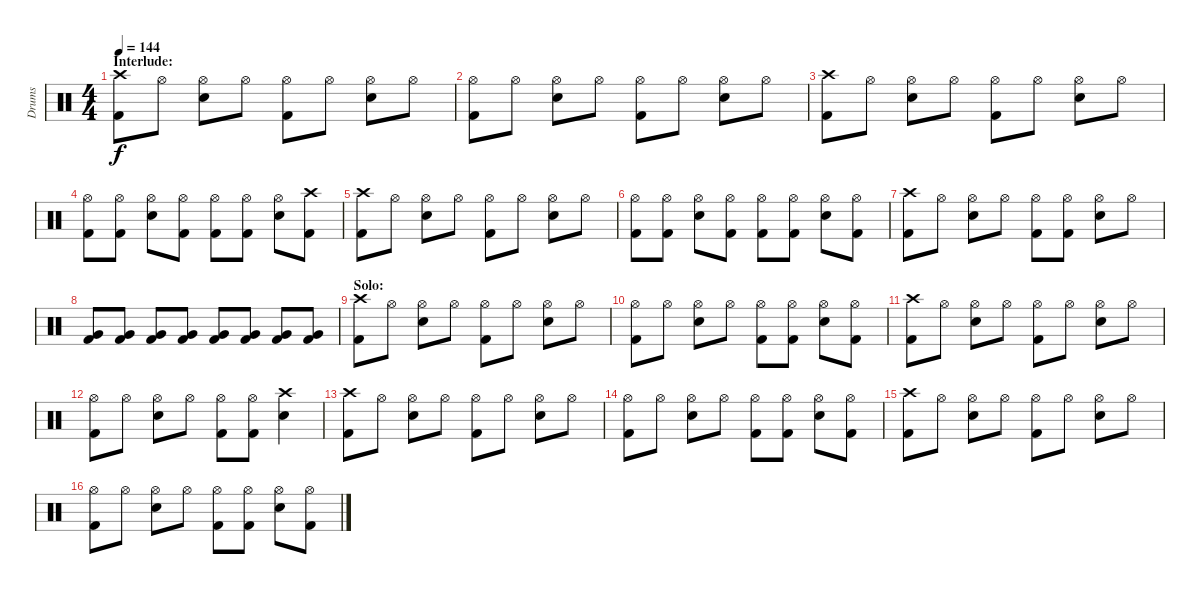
\track ("Drums" "Drums") {instrument percussion}
\staff {score}
\articulation defaults
\ts (4 4)
\section ("" "Interlude:")
\tempo 144
\clef neutral
\ks c
("Crash high (hit)" "Kick (hit) 2").8{dy f} "Hi-Hat (open)".8 ("Hi-Hat (open)" "Snare (hit) 2").8 "Hi-Hat (open)".8 ("Hi-Hat (open)" "Kick (hit) 2").8 "Hi-Hat (open)".8 ("Hi-Hat (open)" "Snare (hit) 2").8 "Hi-Hat (open)".8 |
("Hi-Hat (open)" "Kick (hit) 2").8 "Hi-Hat (open)".8 ("Hi-Hat (open)" "Snare (hit) 2").8 "Hi-Hat (open)".8 ("Hi-Hat (open)" "Kick (hit) 2").8 "Hi-Hat (open)".8 ("Hi-Hat (open)" "Snare (hit) 2").8 "Hi-Hat (open)".8 |
("Crash high (hit)" "Kick (hit) 2").8 "Hi-Hat (open)".8 ("Hi-Hat (open)" "Snare (hit) 2").8 "Hi-Hat (open)".8 ("Hi-Hat (open)" "Kick (hit) 2").8 "Hi-Hat (open)".8 ("Hi-Hat (open)" "Snare (hit) 2").8 "Hi-Hat (open)".8 |
("Hi-Hat (open)" "Kick (hit) 2").8 ("Hi-Hat (open)" "Kick (hit) 2").8 ("Hi-Hat (open)" "Snare (hit) 2").8 ("Hi-Hat (open)" "Kick (hit) 2").8 ("Hi-Hat (open)" "Kick (hit) 2").8 ("Hi-Hat (open)" "Kick (hit) 2").8 ("Hi-Hat (open)" "Snare (hit) 2").8 ("Crash high (hit)" "Kick (hit) 2").8 |
("Crash high (hit)" "Kick (hit) 2").8 "Hi-Hat (open)".8 ("Hi-Hat (open)" "Snare (hit) 2").8 "Hi-Hat (open)".8 ("Hi-Hat (open)" "Kick (hit) 2").8 "Hi-Hat (open)".8 ("Hi-Hat (open)" "Snare (hit) 2").8 "Hi-Hat (open)".8 |
("Hi-Hat (open)" "Kick (hit) 2").8 ("Hi-Hat (open)" "Kick (hit) 2").8 ("Hi-Hat (open)" "Snare (hit) 2").8 ("Hi-Hat (open)" "Kick (hit) 2").8 ("Hi-Hat (open)" "Kick (hit) 2").8 ("Hi-Hat (open)" "Kick (hit) 2").8 ("Hi-Hat (open)" "Snare (hit) 2").8 ("Hi-Hat (open)" "Kick (hit) 2").8 |
("Crash high (hit)" "Kick (hit) 2").8 "Hi-Hat (open)".8 ("Hi-Hat (open)" "Snare (hit) 2").8 "Hi-Hat (open)".8 ("Hi-Hat (open)" "Kick (hit) 2").8 ("Hi-Hat (open)" "Kick (hit) 2").8 ("Hi-Hat (open)" "Snare (hit) 2").8 "Hi-Hat (open)".8 |
("Very Low Tom (hit)" "Kick (hit) 2").8 ("Very Low Tom (hit)" "Kick (hit) 2").8 ("Very Low Tom (hit)" "Kick (hit) 2").8 ("Very Low Tom (hit)" "Kick (hit) 2").8 ("Very Low Tom (hit)" "Kick (hit) 2").8 ("Very Low Tom (hit)" "Kick (hit) 2").8 ("Very Low Tom (hit)" "Kick (hit) 2").8 ("Very Low Tom (hit)" "Kick (hit) 2").8 |
\section ("" "Solo:")
("Crash high (hit)" "Kick (hit) 2").8 "Hi-Hat (open)".8 ("Hi-Hat (open)" "Snare (hit) 2").8 "Hi-Hat (open)".8 ("Hi-Hat (open)" "Kick (hit) 2").8 "Hi-Hat (open)".8 ("Hi-Hat (open)" "Snare (hit) 2").8 "Hi-Hat (open)".8 |
("Hi-Hat (open)" "Kick (hit) 2").8 "Hi-Hat (open)".8 ("Hi-Hat (open)" "Snare (hit) 2").8 "Hi-Hat (open)".8 ("Hi-Hat (open)" "Kick (hit) 2").8 ("Hi-Hat (open)" "Kick (hit) 2").8 ("Hi-Hat (open)" "Snare (hit) 2").8 ("Hi-Hat (open)" "Kick (hit) 2").8 |
("Crash high (hit)" "Kick (hit) 2").8 "Hi-Hat (open)".8 ("Hi-Hat (open)" "Snare (hit) 2").8 "Hi-Hat (open)".8 ("Hi-Hat (open)" "Kick (hit) 2").8 "Hi-Hat (open)".8 ("Hi-Hat (open)" "Snare (hit) 2").8 "Hi-Hat (open)".8 |
("Hi-Hat (open)" "Kick (hit) 2").8 "Hi-Hat (open)".8 ("Hi-Hat (open)" "Snare (hit) 2").8 "Hi-Hat (open)".8 ("Hi-Hat (open)" "Kick (hit) 2").8 ("Hi-Hat (open)" "Kick (hit) 2").8 ("Crash high (hit)" "Snare (hit) 2").4 |
("Crash high (hit)" "Kick (hit) 2").8 "Hi-Hat (open)".8 ("Hi-Hat (open)" "Snare (hit) 2").8 "Hi-Hat (open)".8 ("Hi-Hat (open)" "Kick (hit) 2").8 "Hi-Hat (open)".8 ("Hi-Hat (open)" "Snare (hit) 2").8 "Hi-Hat (open)".8 |
("Hi-Hat (open)" "Kick (hit) 2").8 "Hi-Hat (open)".8 ("Hi-Hat (open)" "Snare (hit) 2").8 "Hi-Hat (open)".8 ("Hi-Hat (open)" "Kick (hit) 2").8 ("Hi-Hat (open)" "Kick (hit) 2").8 ("Hi-Hat (open)" "Snare (hit) 2").8 ("Hi-Hat (open)" "Kick (hit) 2").8 |
("Crash high (hit)" "Kick (hit) 2").8 "Hi-Hat (open)".8 ("Hi-Hat (open)" "Snare (hit) 2").8 "Hi-Hat (open)".8 ("Hi-Hat (open)" "Kick (hit) 2").8 "Hi-Hat (open)".8 ("Hi-Hat (open)" "Snare (hit) 2").8 "Hi-Hat (open)".8 |
("Hi-Hat (open)" "Kick (hit) 2").8 "Hi-Hat (open)".8 ("Hi-Hat (open)" "Snare (hit) 2").8 "Hi-Hat (open)".8 ("Hi-Hat (open)" "Kick (hit) 2").8 ("Hi-Hat (open)" "Kick (hit) 2").8 ("Hi-Hat (open)" "Snare (hit) 2").8 ("Hi-Hat (open)" "Kick (hit) 2").8
